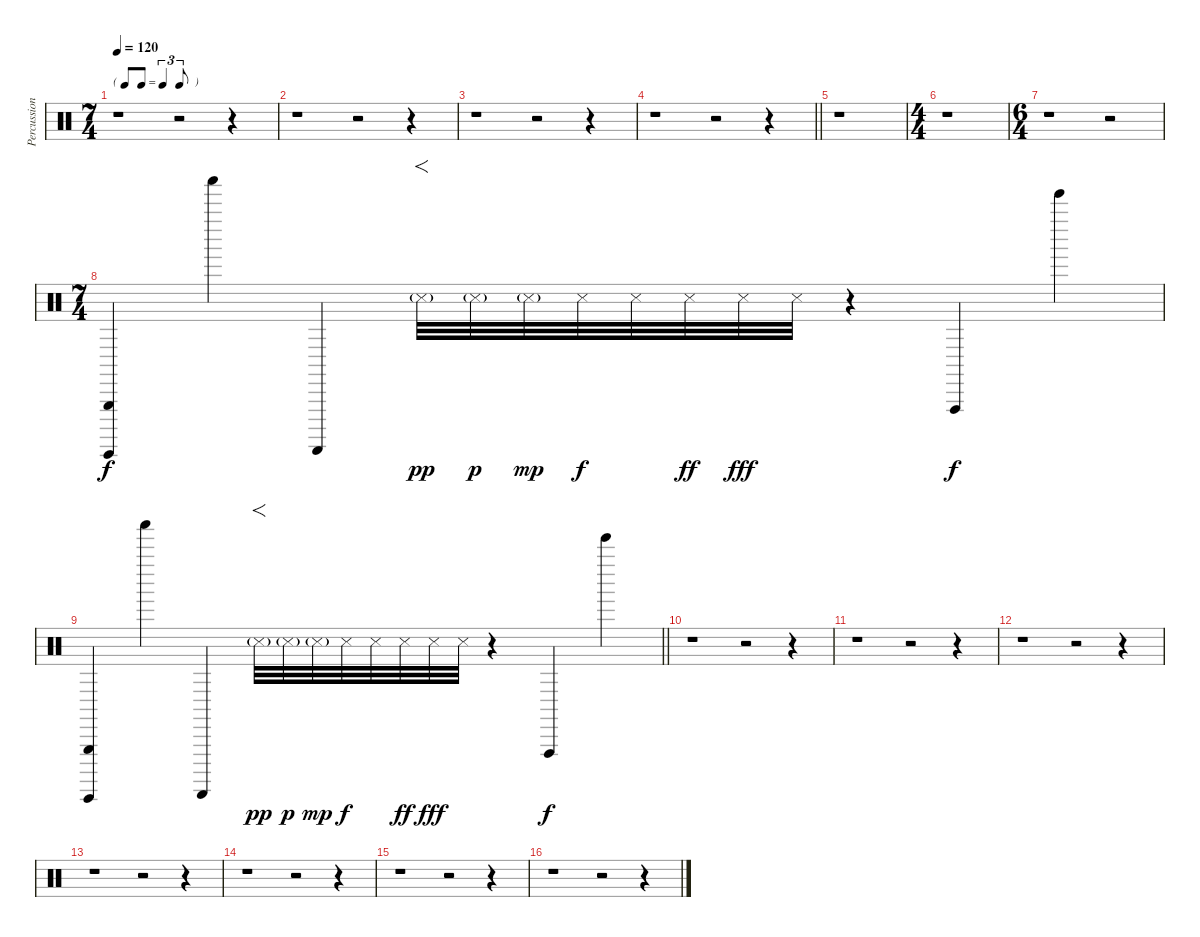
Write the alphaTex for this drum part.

\track ("Percussion" "Percussion") {instrument percussion}
\staff {score}
\articulation defaults
\ts (7 4)
\tf triplet8th
\tempo 120
\clef neutral
\ks c
r.1{dy f} r.2 r.4 |
r.1 r.2 r.4 |
r.1 r.2 r.4 |
\barLineRight lightlight
r.1 r.2 r.4 |
r.1 |
\ts (4 4)
r.1 |
\ts (6 4)
r.1 r.2 |
\ts (7 4)
("Triangle (hit)" "Guiro (hit)").4 "Shaker (hit)".4 "Guiro (scrap-return)".4 "Snare (side stick) 3"{g}.32{f dy pp} "Snare (side stick) 3"{g}.32{dy p} "Snare (side stick) 3"{g}.32{dy mp} "Snare (side stick) 3".32{dy f} "Snare (side stick) 3".32 "Snare (side stick) 3".32{dy ff} "Snare (side stick) 3".32{dy fff} "Snare (side stick) 3".32 r.4 "Vibraslap (hit)".4{dy f} "Tinkle Bell (hit)".4 |
\barLineRight lightlight
("Triangle (hit)" "Guiro (hit)").4 "Shaker (hit)".4 "Guiro (scrap-return)".4 "Snare (side stick) 3"{g}.32{f dy pp} "Snare (side stick) 3"{g}.32{dy p} "Snare (side stick) 3"{g}.32{dy mp} "Snare (side stick) 3".32{dy f} "Snare (side stick) 3".32 "Snare (side stick) 3".32{dy ff} "Snare (side stick) 3".32{dy fff} "Snare (side stick) 3".32 r.4 "Vibraslap (hit)".4{dy f} "Tinkle Bell (hit)".4 |
r.1 r.2 r.4 |
r.1 r.2 r.4 |
r.1 r.2 r.4 |
r.1 r.2 r.4 |
r.1 r.2 r.4 |
r.1 r.2 r.4 |
r.1 r.2 r.4
